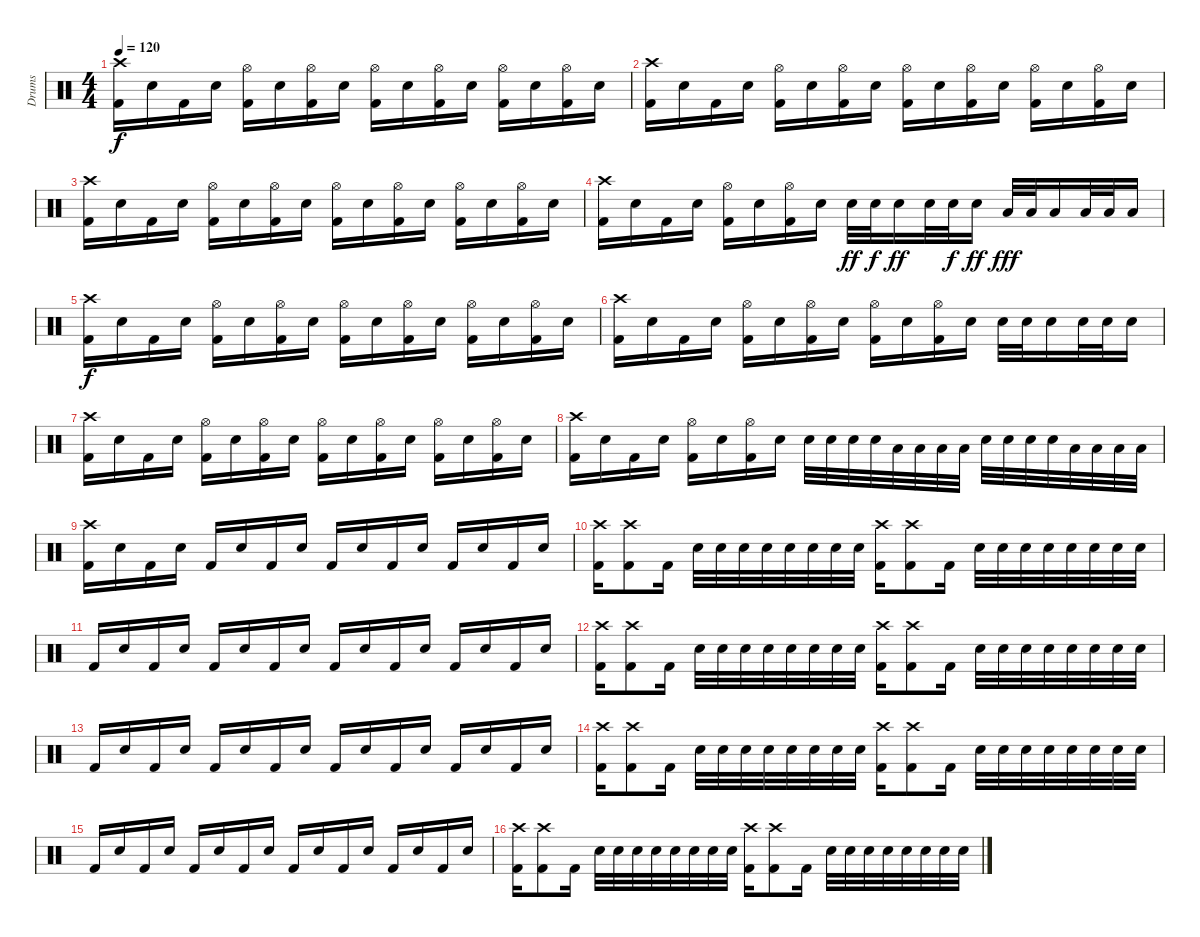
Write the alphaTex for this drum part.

\track ("Drums" "Drums") {instrument percussion}
\staff {score}
\articulation defaults
\ts (4 4)
\tempo 120
\clef neutral
\ks c
("Crash high (hit)" "Kick (hit) 2").16{dy f} "Electric Snare (hit)".16 "Kick (hit) 2".16 "Electric Snare (hit)".16 ("Hi-Hat (open)" "Kick (hit) 2").16 "Electric Snare (hit)".16 ("Hi-Hat (open)" "Kick (hit) 2").16 "Electric Snare (hit)".16 ("Hi-Hat (open)" "Kick (hit) 2").16 "Electric Snare (hit)".16 ("Hi-Hat (open)" "Kick (hit) 2").16 "Electric Snare (hit)".16 ("Hi-Hat (open)" "Kick (hit) 2").16 "Electric Snare (hit)".16 ("Hi-Hat (open)" "Kick (hit) 2").16 "Electric Snare (hit)".16 |
("Crash high (hit)" "Kick (hit) 2").16 "Electric Snare (hit)".16 "Kick (hit) 2".16 "Electric Snare (hit)".16 ("Hi-Hat (open)" "Kick (hit) 2").16 "Electric Snare (hit)".16 ("Hi-Hat (open)" "Kick (hit) 2").16 "Electric Snare (hit)".16 ("Hi-Hat (open)" "Kick (hit) 2").16 "Electric Snare (hit)".16 ("Hi-Hat (open)" "Kick (hit) 2").16 "Electric Snare (hit)".16 ("Hi-Hat (open)" "Kick (hit) 2").16 "Electric Snare (hit)".16 ("Hi-Hat (open)" "Kick (hit) 2").16 "Electric Snare (hit)".16 |
("Crash high (hit)" "Kick (hit) 2").16 "Electric Snare (hit)".16 "Kick (hit) 2".16 "Electric Snare (hit)".16 ("Hi-Hat (open)" "Kick (hit) 2").16 "Electric Snare (hit)".16 ("Hi-Hat (open)" "Kick (hit) 2").16 "Electric Snare (hit)".16 ("Hi-Hat (open)" "Kick (hit) 2").16 "Electric Snare (hit)".16 ("Hi-Hat (open)" "Kick (hit) 2").16 "Electric Snare (hit)".16 ("Hi-Hat (open)" "Kick (hit) 2").16 "Electric Snare (hit)".16 ("Hi-Hat (open)" "Kick (hit) 2").16 "Electric Snare (hit)".16 |
("Crash high (hit)" "Kick (hit) 2").16 "Electric Snare (hit)".16 "Kick (hit) 2".16 "Electric Snare (hit)".16 ("Hi-Hat (open)" "Kick (hit) 2").16 "Electric Snare (hit)".16 ("Hi-Hat (open)" "Kick (hit) 2").16 "Electric Snare (hit)".16 "Electric Snare (hit)".32{dy ff} "Electric Snare (hit)".32{dy f} "Electric Snare (hit)".16{dy ff} "Electric Snare (hit)".32 "Electric Snare (hit)".32{dy f} "Electric Snare (hit)".16{dy ff} "Low Tom (hit)".32{dy fff} "Low Tom (hit)".32 "Low Tom (hit)".16 "Low Tom (hit)".32 "Low Tom (hit)".32 "Low Tom (hit)".16 |
("Crash high (hit)" "Kick (hit) 2").16{dy f} "Electric Snare (hit)".16 "Kick (hit) 2".16 "Electric Snare (hit)".16 ("Hi-Hat (open)" "Kick (hit) 2").16 "Electric Snare (hit)".16 ("Hi-Hat (open)" "Kick (hit) 2").16 "Electric Snare (hit)".16 ("Hi-Hat (open)" "Kick (hit) 2").16 "Electric Snare (hit)".16 ("Hi-Hat (open)" "Kick (hit) 2").16 "Electric Snare (hit)".16 ("Hi-Hat (open)" "Kick (hit) 2").16 "Electric Snare (hit)".16 ("Hi-Hat (open)" "Kick (hit) 2").16 "Electric Snare (hit)".16 |
("Crash high (hit)" "Kick (hit) 2").16 "Electric Snare (hit)".16 "Kick (hit) 2".16 "Electric Snare (hit)".16 ("Hi-Hat (open)" "Kick (hit) 2").16 "Electric Snare (hit)".16 ("Hi-Hat (open)" "Kick (hit) 2").16 "Electric Snare (hit)".16 ("Hi-Hat (open)" "Kick (hit) 2").16 "Electric Snare (hit)".16 ("Hi-Hat (open)" "Kick (hit) 2").16 "Electric Snare (hit)".16 "Electric Snare (hit)".32 "Electric Snare (hit)".32 "Electric Snare (hit)".16 "Electric Snare (hit)".32 "Electric Snare (hit)".32 "Electric Snare (hit)".16 |
("Crash high (hit)" "Kick (hit) 2").16 "Electric Snare (hit)".16 "Kick (hit) 2".16 "Electric Snare (hit)".16 ("Hi-Hat (open)" "Kick (hit) 2").16 "Electric Snare (hit)".16 ("Hi-Hat (open)" "Kick (hit) 2").16 "Electric Snare (hit)".16 ("Hi-Hat (open)" "Kick (hit) 2").16 "Electric Snare (hit)".16 ("Hi-Hat (open)" "Kick (hit) 2").16 "Electric Snare (hit)".16 ("Hi-Hat (open)" "Kick (hit) 2").16 "Electric Snare (hit)".16 ("Hi-Hat (open)" "Kick (hit) 2").16 "Electric Snare (hit)".16 |
("Crash high (hit)" "Kick (hit) 2").16 "Electric Snare (hit)".16 "Kick (hit) 2".16 "Electric Snare (hit)".16 ("Hi-Hat (open)" "Kick (hit) 2").16 "Electric Snare (hit)".16 ("Hi-Hat (open)" "Kick (hit) 2").16 "Electric Snare (hit)".16 "Electric Snare (hit)".32 "Electric Snare (hit)".32 "Electric Snare (hit)".32 "Electric Snare (hit)".32 "Low Tom (hit)".32 "Low Tom (hit)".32 "Low Tom (hit)".32 "Low Tom (hit)".32 "Electric Snare (hit)".32 "Electric Snare (hit)".32 "Electric Snare (hit)".32 "Electric Snare (hit)".32 "Low Tom (hit)".32 "Low Tom (hit)".32 "Low Tom (hit)".32 "Low Tom (hit)".32 |
("Crash high (hit)" "Kick (hit) 2").16 "Electric Snare (hit)".16 "Kick (hit) 2".16 "Electric Snare (hit)".16 "Kick (hit) 2".16 "Electric Snare (hit)".16 "Kick (hit) 2".16 "Electric Snare (hit)".16 "Kick (hit) 2".16 "Electric Snare (hit)".16 "Kick (hit) 2".16 "Electric Snare (hit)".16 "Kick (hit) 2".16 "Electric Snare (hit)".16 "Kick (hit) 2".16 "Electric Snare (hit)".16 |
("Crash high (hit)" "Kick (hit) 2").16 ("Crash high (hit)" "Kick (hit) 2").8 "Kick (hit) 2".16 "Electric Snare (hit)".32 "Electric Snare (hit)".32 "Electric Snare (hit)".32 "Electric Snare (hit)".32 "Electric Snare (hit)".32 "Electric Snare (hit)".32 "Electric Snare (hit)".32 "Electric Snare (hit)".32 ("Crash high (hit)" "Kick (hit) 2").16 ("Crash high (hit)" "Kick (hit) 2").8 "Kick (hit) 2".16 "Electric Snare (hit)".32 "Electric Snare (hit)".32 "Electric Snare (hit)".32 "Electric Snare (hit)".32 "Electric Snare (hit)".32 "Electric Snare (hit)".32 "Electric Snare (hit)".32 "Electric Snare (hit)".32 |
"Kick (hit) 2".16 "Electric Snare (hit)".16 "Kick (hit) 2".16 "Electric Snare (hit)".16 "Kick (hit) 2".16 "Electric Snare (hit)".16 "Kick (hit) 2".16 "Electric Snare (hit)".16 "Kick (hit) 2".16 "Electric Snare (hit)".16 "Kick (hit) 2".16 "Electric Snare (hit)".16 "Kick (hit) 2".16 "Electric Snare (hit)".16 "Kick (hit) 2".16 "Electric Snare (hit)".16 |
("Crash high (hit)" "Kick (hit) 2").16 ("Crash high (hit)" "Kick (hit) 2").8 "Kick (hit) 2".16 "Electric Snare (hit)".32 "Electric Snare (hit)".32 "Electric Snare (hit)".32 "Electric Snare (hit)".32 "Electric Snare (hit)".32 "Electric Snare (hit)".32 "Electric Snare (hit)".32 "Electric Snare (hit)".32 ("Crash high (hit)" "Kick (hit) 2").16 ("Crash high (hit)" "Kick (hit) 2").8 "Kick (hit) 2".16 "Electric Snare (hit)".32 "Electric Snare (hit)".32 "Electric Snare (hit)".32 "Electric Snare (hit)".32 "Electric Snare (hit)".32 "Electric Snare (hit)".32 "Electric Snare (hit)".32 "Electric Snare (hit)".32 |
"Kick (hit) 2".16 "Electric Snare (hit)".16 "Kick (hit) 2".16 "Electric Snare (hit)".16 "Kick (hit) 2".16 "Electric Snare (hit)".16 "Kick (hit) 2".16 "Electric Snare (hit)".16 "Kick (hit) 2".16 "Electric Snare (hit)".16 "Kick (hit) 2".16 "Electric Snare (hit)".16 "Kick (hit) 2".16 "Electric Snare (hit)".16 "Kick (hit) 2".16 "Electric Snare (hit)".16 |
("Crash high (hit)" "Kick (hit) 2").16 ("Crash high (hit)" "Kick (hit) 2").8 "Kick (hit) 2".16 "Electric Snare (hit)".32 "Electric Snare (hit)".32 "Electric Snare (hit)".32 "Electric Snare (hit)".32 "Electric Snare (hit)".32 "Electric Snare (hit)".32 "Electric Snare (hit)".32 "Electric Snare (hit)".32 ("Crash high (hit)" "Kick (hit) 2").16 ("Crash high (hit)" "Kick (hit) 2").8 "Kick (hit) 2".16 "Electric Snare (hit)".32 "Electric Snare (hit)".32 "Electric Snare (hit)".32 "Electric Snare (hit)".32 "Electric Snare (hit)".32 "Electric Snare (hit)".32 "Electric Snare (hit)".32 "Electric Snare (hit)".32 |
"Kick (hit) 2".16 "Electric Snare (hit)".16 "Kick (hit) 2".16 "Electric Snare (hit)".16 "Kick (hit) 2".16 "Electric Snare (hit)".16 "Kick (hit) 2".16 "Electric Snare (hit)".16 "Kick (hit) 2".16 "Electric Snare (hit)".16 "Kick (hit) 2".16 "Electric Snare (hit)".16 "Kick (hit) 2".16 "Electric Snare (hit)".16 "Kick (hit) 2".16 "Electric Snare (hit)".16 |
("Crash high (hit)" "Kick (hit) 2").16 ("Crash high (hit)" "Kick (hit) 2").8 "Kick (hit) 2".16 "Electric Snare (hit)".32 "Electric Snare (hit)".32 "Electric Snare (hit)".32 "Electric Snare (hit)".32 "Electric Snare (hit)".32 "Electric Snare (hit)".32 "Electric Snare (hit)".32 "Electric Snare (hit)".32 ("Crash high (hit)" "Kick (hit) 2").16 ("Crash high (hit)" "Kick (hit) 2").8 "Kick (hit) 2".16 "Electric Snare (hit)".32 "Electric Snare (hit)".32 "Electric Snare (hit)".32 "Electric Snare (hit)".32 "Electric Snare (hit)".32 "Electric Snare (hit)".32 "Electric Snare (hit)".32 "Electric Snare (hit)".32
